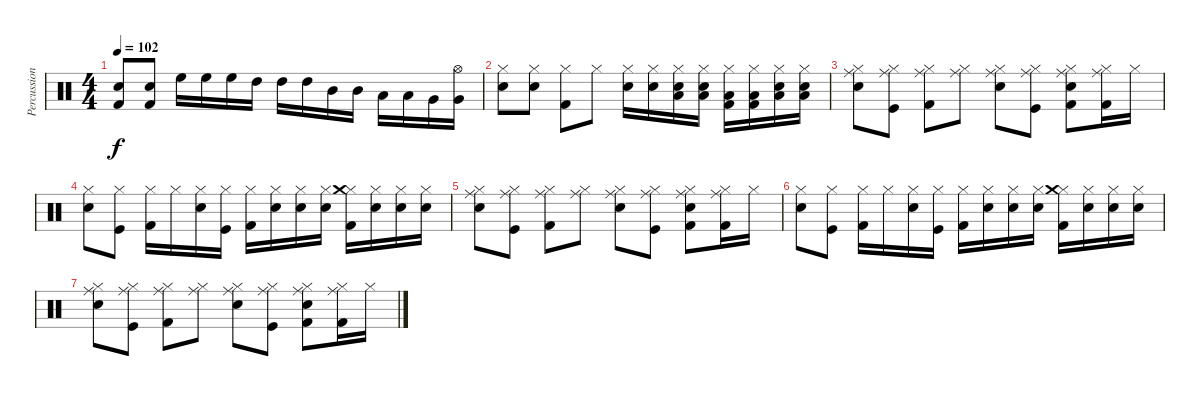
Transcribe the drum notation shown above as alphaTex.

\track ("Percussion" "Percussion") {instrument percussion}
\staff {score}
\articulation defaults
\ts (4 4)
\tempo 102
\clef neutral
\ks c
("Kick (hit) 2" "Snare (hit) 2").8{dy f} ("Kick (hit) 2" "Snare (hit) 2").8 "High Floor Tom (hit)".16 "High Floor Tom (hit)".16 "High Floor Tom (hit)".16 "High Tom (hit)".16 "High Tom (hit)".16 "High Tom (hit)".16 "Mid Tom (hit)".16 "Mid Tom (hit)".16 "Low Tom (hit)".16 "Low Tom (hit)".16 "Very Low Tom (hit)".16 ("Hi-Hat (open)" "Very Low Tom (hit)").16 |
("Hi-Hat (closed)" "Electric Snare (hit)").8 ("Hi-Hat (closed)" "Electric Snare (hit)").8 ("Hi-Hat (closed)" "Kick (hit) 2").8 "Hi-Hat (closed)".8 ("Hi-Hat (closed)" "Electric Snare (hit)").16 ("Hi-Hat (closed)" "Electric Snare (hit)").16 ("Hi-Hat (closed)" "Electric Snare (hit)" "Low Tom (hit)").16 ("Hi-Hat (closed)" "Electric Snare (hit)" "Low Tom (hit)").16 ("Hi-Hat (closed)" "Kick (hit) 2" "Low Tom (hit)").16 ("Hi-Hat (closed)" "Kick (hit) 2" "Low Tom (hit)").16 ("Hi-Hat (closed)" "Low Floor Tom (hit)" "Electric Snare (hit)").16 ("Hi-Hat (closed)" "Low Floor Tom (hit)" "Electric Snare (hit)").16 |
("Hi-Hat (closed)" "Snare (hit) 2" "Ride (middle)").8 ("Hi-Hat (closed)" "Kick (hit)" "Ride (middle)").8 ("Hi-Hat (closed)" "Kick (hit) 2" "Ride (middle)").8 ("Hi-Hat (closed)" "Ride (middle)").8 ("Hi-Hat (closed)" "Snare (hit) 2" "Ride (middle)").8 ("Hi-Hat (closed)" "Kick (hit)" "Ride (middle)").8 ("Hi-Hat (closed)" "Kick (hit) 2" "Snare (hit) 2" "Ride (middle)").8 ("Hi-Hat (closed)" "Kick (hit) 2" "Ride (middle)").16 "Hi-Hat (closed)".16 |
("Hi-Hat (closed)" "Snare (hit) 2").8 ("Hi-Hat (closed)" "Kick (hit)").8 ("Hi-Hat (closed)" "Kick (hit) 2").16 "Hi-Hat (closed)".16 ("Hi-Hat (closed)" "Snare (hit) 2").16 ("Hi-Hat (closed)" "Kick (hit)").16 ("Hi-Hat (closed)" "Kick (hit) 2").16 ("Hi-Hat (closed)" "Snare (hit) 2").16 ("Hi-Hat (closed)" "Snare (hit) 2").16 ("Hi-Hat (closed)" "Snare (hit) 2").16 ("Hi-Hat (closed)" "Kick (hit) 2" "Crash medium (hit)").16 ("Hi-Hat (closed)" "Snare (hit) 2").16 ("Hi-Hat (closed)" "Snare (hit) 2").16 ("Hi-Hat (closed)" "Snare (hit) 2").16 |
("Hi-Hat (closed)" "Snare (hit) 2" "Ride (middle)").8 ("Hi-Hat (closed)" "Kick (hit)" "Ride (middle)").8 ("Hi-Hat (closed)" "Kick (hit) 2" "Ride (middle)").8 ("Hi-Hat (closed)" "Ride (middle)").8 ("Hi-Hat (closed)" "Snare (hit) 2" "Ride (middle)").8 ("Hi-Hat (closed)" "Kick (hit)" "Ride (middle)").8 ("Hi-Hat (closed)" "Kick (hit) 2" "Snare (hit) 2" "Ride (middle)").8 ("Hi-Hat (closed)" "Kick (hit) 2" "Ride (middle)").16 "Hi-Hat (closed)".16 |
("Hi-Hat (closed)" "Snare (hit) 2").8 ("Hi-Hat (closed)" "Kick (hit)").8 ("Hi-Hat (closed)" "Kick (hit) 2").16 "Hi-Hat (closed)".16 ("Hi-Hat (closed)" "Snare (hit) 2").16 ("Hi-Hat (closed)" "Kick (hit)").16 ("Hi-Hat (closed)" "Kick (hit) 2").16 ("Hi-Hat (closed)" "Snare (hit) 2").16 ("Hi-Hat (closed)" "Snare (hit) 2").16 ("Hi-Hat (closed)" "Snare (hit) 2").16 ("Hi-Hat (closed)" "Kick (hit) 2" "Crash medium (hit)").16 ("Hi-Hat (closed)" "Snare (hit) 2").16 ("Hi-Hat (closed)" "Snare (hit) 2").16 ("Hi-Hat (closed)" "Snare (hit) 2").16 |
("Hi-Hat (closed)" "Snare (hit) 2" "Ride (middle)").8 ("Hi-Hat (closed)" "Kick (hit)" "Ride (middle)").8 ("Hi-Hat (closed)" "Kick (hit) 2" "Ride (middle)").8 ("Hi-Hat (closed)" "Ride (middle)").8 ("Hi-Hat (closed)" "Snare (hit) 2" "Ride (middle)").8 ("Hi-Hat (closed)" "Kick (hit)" "Ride (middle)").8 ("Hi-Hat (closed)" "Kick (hit) 2" "Snare (hit) 2" "Ride (middle)").8 ("Hi-Hat (closed)" "Kick (hit) 2" "Ride (middle)").16 "Hi-Hat (closed)".16
